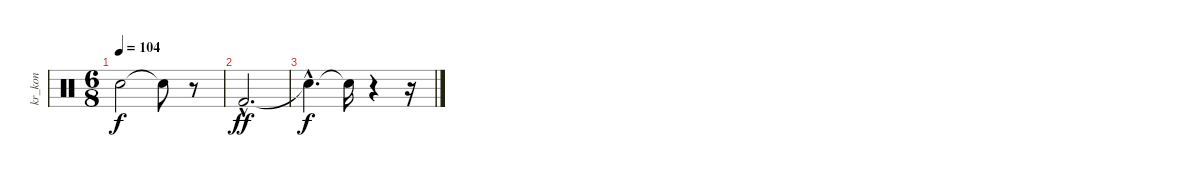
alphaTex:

\track ("kr_kon" "kr_kon") {instrument percussion}
\staff {score}
\articulation defaults
\ts (6 8)
\tempo 104
\clef neutral
\ks c "Snare (hit)"{t}.2{dy f} "Snare (hit)"{t}.8
r.8 |
"Kick (hit) 2"{hac}.2{d dy ff} |
"Snare (hit)"{hac t}.4{d dy f} "Snare (hit)"{t}.16 r.4 r.16
